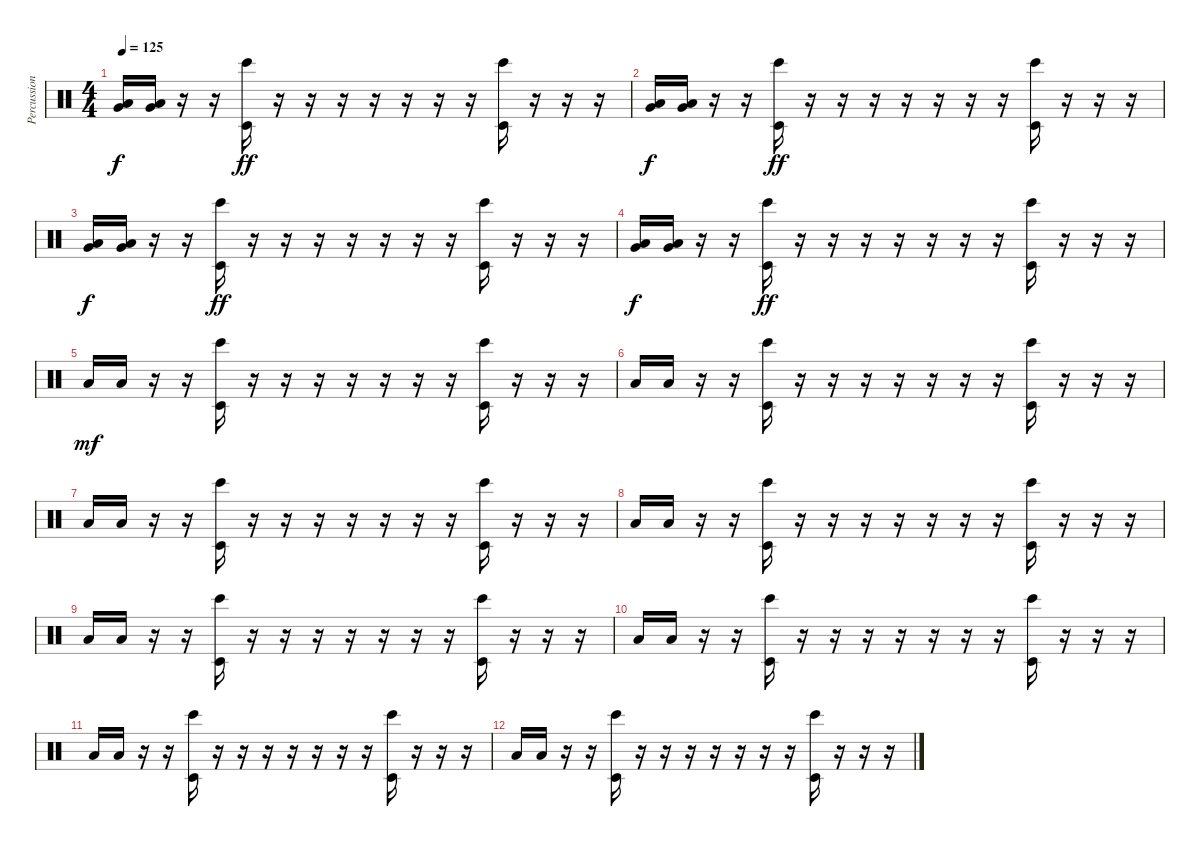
\track ("Percussions" "Percussion") {instrument percussion}
\staff {score}
\articulation defaults
\ts (4 4)
\tempo 125
\clef neutral
\ks c
("Low Floor Tom (hit)" "Very Low Tom (hit)").16{dy f} ("Low Floor Tom (hit)" "Very Low Tom (hit)").16 r.16 r.16 ("Timbale low (hit)" "Bongo High (hit)").16{dy ff} r.16 r.16 r.16 r.16 r.16 r.16 r.16 ("Timbale low (hit)" "Bongo High (hit)").16 r.16 r.16 r.16 |
("Low Floor Tom (hit)" "Very Low Tom (hit)").16{dy f} ("Low Floor Tom (hit)" "Very Low Tom (hit)").16 r.16 r.16 ("Timbale low (hit)" "Bongo High (hit)").16{dy ff} r.16 r.16 r.16 r.16 r.16 r.16 r.16 ("Timbale low (hit)" "Bongo High (hit)").16 r.16 r.16 r.16 |
("Low Floor Tom (hit)" "Very Low Tom (hit)").16{dy f} ("Low Floor Tom (hit)" "Very Low Tom (hit)").16 r.16 r.16 ("Timbale low (hit)" "Bongo High (hit)").16{dy ff} r.16 r.16 r.16 r.16 r.16 r.16 r.16 ("Timbale low (hit)" "Bongo High (hit)").16 r.16 r.16 r.16 |
("Low Floor Tom (hit)" "Very Low Tom (hit)").16{dy f} ("Low Floor Tom (hit)" "Very Low Tom (hit)").16 r.16 r.16 ("Timbale low (hit)" "Bongo High (hit)").16{dy ff} r.16 r.16 r.16 r.16 r.16 r.16 r.16 ("Timbale low (hit)" "Bongo High (hit)").16 r.16 r.16 r.16 |
"Low Floor Tom (hit)".16{dy mf} "Low Floor Tom (hit)".16 r.16 r.16 ("Timbale low (hit)" "Bongo High (hit)").16 r.16 r.16 r.16 r.16 r.16 r.16 r.16 ("Timbale low (hit)" "Bongo High (hit)").16 r.16 r.16 r.16 |
"Low Floor Tom (hit)".16 "Low Floor Tom (hit)".16 r.16 r.16 ("Timbale low (hit)" "Bongo High (hit)").16 r.16 r.16 r.16 r.16 r.16 r.16 r.16 ("Timbale low (hit)" "Bongo High (hit)").16 r.16 r.16 r.16 |
"Low Floor Tom (hit)".16 "Low Floor Tom (hit)".16 r.16 r.16 ("Timbale low (hit)" "Bongo High (hit)").16 r.16 r.16 r.16 r.16 r.16 r.16 r.16 ("Timbale low (hit)" "Bongo High (hit)").16 r.16 r.16 r.16 |
"Low Floor Tom (hit)".16 "Low Floor Tom (hit)".16 r.16 r.16 ("Timbale low (hit)" "Bongo High (hit)").16 r.16 r.16 r.16 r.16 r.16 r.16 r.16 ("Timbale low (hit)" "Bongo High (hit)").16 r.16 r.16 r.16 |
"Low Floor Tom (hit)".16 "Low Floor Tom (hit)".16 r.16 r.16 ("Timbale low (hit)" "Bongo High (hit)").16 r.16 r.16 r.16 r.16 r.16 r.16 r.16 ("Timbale low (hit)" "Bongo High (hit)").16 r.16 r.16 r.16 |
"Low Floor Tom (hit)".16 "Low Floor Tom (hit)".16 r.16 r.16 ("Timbale low (hit)" "Bongo High (hit)").16 r.16 r.16 r.16 r.16 r.16 r.16 r.16 ("Timbale low (hit)" "Bongo High (hit)").16 r.16 r.16 r.16 |
"Low Floor Tom (hit)".16 "Low Floor Tom (hit)".16 r.16 r.16 ("Timbale low (hit)" "Bongo High (hit)").16 r.16 r.16 r.16 r.16 r.16 r.16 r.16 ("Timbale low (hit)" "Bongo High (hit)").16 r.16 r.16 r.16 |
"Low Floor Tom (hit)".16 "Low Floor Tom (hit)".16 r.16 r.16 ("Timbale low (hit)" "Bongo High (hit)").16 r.16 r.16 r.16 r.16 r.16 r.16 r.16 ("Timbale low (hit)" "Bongo High (hit)").16 r.16 r.16 r.16
